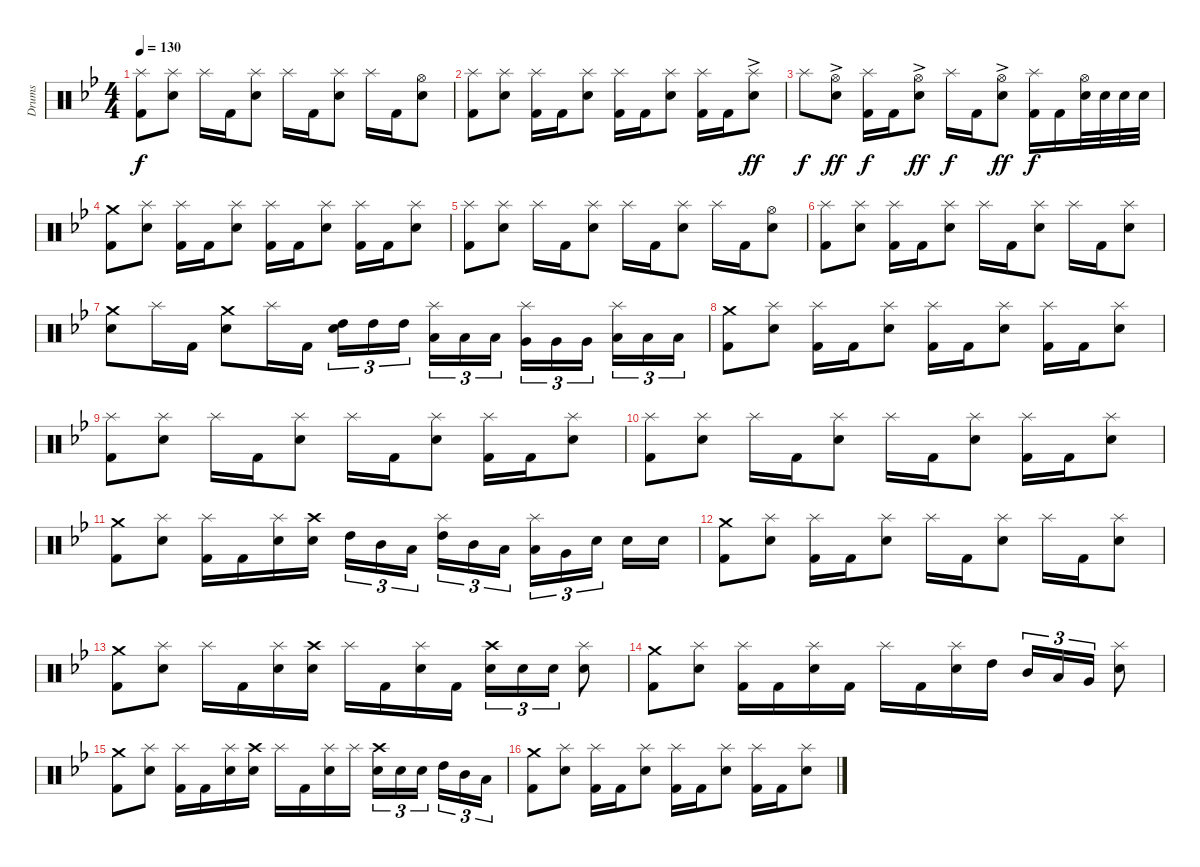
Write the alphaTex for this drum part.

\track ("Drums" "Drums") {instrument percussion}
\staff {score}
\articulation defaults
\ts (4 4)
\tempo 130
\clef neutral
\ks bb
("Splash (hit)" "Kick (hit) 2").8{dy f} ("Electric Snare (hit)" "Splash (hit)").8 "Splash (hit)".16 "Kick (hit) 2".16 ("Electric Snare (hit)" "Splash (hit)").8 "Splash (hit)".16 "Kick (hit) 2".16 ("Electric Snare (hit)" "Splash (hit)").8 "Splash (hit)".16 "Kick (hit) 2".16 ("Electric Snare (hit)" "Hi-Hat (open)").8 |
("Splash (hit)" "Kick (hit) 2").8 ("Electric Snare (hit)" "Splash (hit)").8 ("Splash (hit)" "Kick (hit) 2").16 "Kick (hit) 2".16 ("Electric Snare (hit)" "Splash (hit)").8 ("Splash (hit)" "Kick (hit) 2").16 "Kick (hit) 2".16 ("Electric Snare (hit)" "Splash (hit)").8 ("Splash (hit)" "Kick (hit) 2").16 "Kick (hit) 2".16 ("Electric Snare (hit)"{ac} "Splash (hit)").8{dy ff} |
"Splash (hit)".8{dy f} ("Electric Snare (hit)"{ac} "Hi-Hat (open)").8{dy ff} ("Splash (hit)" "Kick (hit) 2").16{dy f} "Kick (hit) 2".16 ("Electric Snare (hit)"{ac} "Hi-Hat (open)").8{dy ff} "Splash (hit)".16{dy f} "Kick (hit) 2".16 ("Electric Snare (hit)"{ac} "Hi-Hat (open)").8{dy ff} ("Splash (hit)" "Kick (hit) 2").16{dy f} "Kick (hit) 2".16 ("Electric Snare (hit)" "Hi-Hat (open)").32 "Electric Snare (hit)".32 "Electric Snare (hit)".32 "Electric Snare (hit)".32 |
("Crash medium (hit)" "Kick (hit) 2").8 ("Electric Snare (hit)" "Splash (hit)").8 ("Splash (hit)" "Kick (hit) 2").16 "Kick (hit) 2".16 ("Electric Snare (hit)" "Splash (hit)").8 ("Splash (hit)" "Kick (hit) 2").16 "Kick (hit) 2".16 ("Electric Snare (hit)" "Splash (hit)").8 ("Splash (hit)" "Kick (hit) 2").16 "Kick (hit) 2".16 ("Electric Snare (hit)" "Splash (hit)").8 |
("Splash (hit)" "Kick (hit) 2").8 ("Electric Snare (hit)" "Splash (hit)").8 "Splash (hit)".16 "Kick (hit) 2".16 ("Electric Snare (hit)" "Splash (hit)").8 "Splash (hit)".16 "Kick (hit) 2".16 ("Electric Snare (hit)" "Splash (hit)").8 "Splash (hit)".16 "Kick (hit) 2".16 ("Electric Snare (hit)" "Hi-Hat (open)").8 |
("Splash (hit)" "Kick (hit) 2").8 ("Electric Snare (hit)" "Splash (hit)").8 ("Splash (hit)" "Kick (hit) 2").16 "Kick (hit) 2".16 ("Electric Snare (hit)" "Splash (hit)").8 "Splash (hit)".16 "Kick (hit) 2".16 ("Electric Snare (hit)" "Splash (hit)").8 "Splash (hit)".16 "Kick (hit) 2".16 ("Electric Snare (hit)" "Splash (hit)").8 |
("Crash medium (hit)" "Electric Snare (hit)").8 "Splash (hit)".16 "Kick (hit) 2".16 ("Crash medium (hit)" "Electric Snare (hit)").8 "Splash (hit)".16 "Kick (hit) 2".16 ("High Tom (hit)" "Electric Snare (hit)").16{tu (3 2)} "High Tom (hit)".16{tu (3 2)} "High Tom (hit)".16{tu (3 2) beam splitsecondary} ("Low Tom (hit)" "Splash (hit)").16{tu (3 2)} "Low Tom (hit)".16{tu (3 2)} "Low Tom (hit)".16{tu (3 2)} ("Very Low Tom (hit)" "Splash (hit)").16{tu (3 2)} "Very Low Tom (hit)".16{tu (3 2)} "Very Low Tom (hit)".16{tu (3 2) beam splitsecondary} ("Low Floor Tom (hit)" "Splash (hit)").16{tu (3 2)} "Low Floor Tom (hit)".16{tu (3 2)} "Low Floor Tom (hit)".16{tu (3 2)} |
("Crash medium (hit)" "Kick (hit) 2").8 ("Electric Snare (hit)" "Splash (hit)").8 ("Splash (hit)" "Kick (hit) 2").16 "Kick (hit) 2".16 ("Electric Snare (hit)" "Splash (hit)").8 ("Splash (hit)" "Kick (hit) 2").16 "Kick (hit) 2".16 ("Electric Snare (hit)" "Splash (hit)").8 ("Splash (hit)" "Kick (hit) 2").16 "Kick (hit) 2".16 ("Electric Snare (hit)" "Splash (hit)").8 |
("Splash (hit)" "Kick (hit) 2").8 ("Electric Snare (hit)" "Splash (hit)").8 "Splash (hit)".16 "Kick (hit) 2".16 ("Electric Snare (hit)" "Splash (hit)").8 "Splash (hit)".16 "Kick (hit) 2".16 ("Electric Snare (hit)" "Splash (hit)").8 ("Splash (hit)" "Kick (hit) 2").16 "Kick (hit) 2".16 ("Electric Snare (hit)" "Splash (hit)").8 |
("Splash (hit)" "Kick (hit) 2").8 ("Electric Snare (hit)" "Splash (hit)").8 "Splash (hit)".16 "Kick (hit) 2".16 ("Electric Snare (hit)" "Splash (hit)").8 "Splash (hit)".16 "Kick (hit) 2".16 ("Electric Snare (hit)" "Splash (hit)").8 ("Splash (hit)" "Kick (hit) 2").16 "Kick (hit) 2".16 ("Electric Snare (hit)" "Splash (hit)").8 |
("Crash medium (hit)" "Kick (hit) 2").8 ("Electric Snare (hit)" "Splash (hit)").8 ("Splash (hit)" "Kick (hit) 2").16 "Kick (hit) 2".16 ("Electric Snare (hit)" "Splash (hit)").16 ("Electric Snare (hit)" "Crash high (hit)").16 "High Tom (hit)".16{tu (3 2)} "Mid Tom (hit)".16{tu (3 2)} "Low Tom (hit)".16{tu (3 2) beam splitsecondary} ("High Tom (hit)" "Splash (hit)").16{tu (3 2)} "Mid Tom (hit)".16{tu (3 2)} "Low Tom (hit)".16{tu (3 2)} ("Low Tom (hit)" "Splash (hit)").16{tu (3 2)} "Very Low Tom (hit)".16{tu (3 2)} "Electric Snare (hit)".16{tu (3 2) beam splitsecondary} "Electric Snare (hit)".16 "Electric Snare (hit)".16 |
("Crash medium (hit)" "Kick (hit) 2").8 ("Electric Snare (hit)" "Splash (hit)").8 ("Splash (hit)" "Kick (hit) 2").16 "Kick (hit) 2".16 ("Electric Snare (hit)" "Splash (hit)").8 "Splash (hit)".16 "Kick (hit) 2".16 ("Electric Snare (hit)" "Splash (hit)").8 "Splash (hit)".16 "Kick (hit) 2".16 ("Electric Snare (hit)" "Splash (hit)").8 |
("Crash medium (hit)" "Kick (hit) 2").8 ("Electric Snare (hit)" "Splash (hit)").8 "Splash (hit)".16 "Kick (hit) 2".16 ("Electric Snare (hit)" "Splash (hit)").16 ("Electric Snare (hit)" "Crash high (hit)").16 "Splash (hit)".16 "Kick (hit) 2".16 ("Electric Snare (hit)" "Splash (hit)").16 "Kick (hit) 2".16 ("Electric Snare (hit)" "Crash high (hit)").16{tu (3 2)} "Electric Snare (hit)".16{tu (3 2)} "Electric Snare (hit)".16{tu (3 2)} ("Electric Snare (hit)" "Splash (hit)").8 |
("Crash medium (hit)" "Kick (hit) 2").8 ("Electric Snare (hit)" "Splash (hit)").8 ("Splash (hit)" "Kick (hit) 2").16 "Kick (hit) 2".16 ("Electric Snare (hit)" "Splash (hit)").16 "Kick (hit) 2".16 "Splash (hit)".16 "Kick (hit) 2".16 ("Electric Snare (hit)" "Splash (hit)").16 "High Tom (hit)".16 "Mid Tom (hit)".16{tu (3 2)} "Low Tom (hit)".16{tu (3 2)} "Very Low Tom (hit)".16{tu (3 2)} ("Electric Snare (hit)" "Splash (hit)").8 |
("Crash medium (hit)" "Kick (hit) 2").8 ("Electric Snare (hit)" "Splash (hit)").8 ("Splash (hit)" "Kick (hit) 2").16 "Kick (hit) 2".16 ("Electric Snare (hit)" "Splash (hit)").16 ("Electric Snare (hit)" "Crash high (hit)").16 "Splash (hit)".16 "Kick (hit) 2".16 ("Electric Snare (hit)" "Splash (hit)").16 "Splash (hit)".16 ("Electric Snare (hit)" "Crash high (hit)").16{tu (3 2)} "Electric Snare (hit)".16{tu (3 2)} "Electric Snare (hit)".16{tu (3 2) beam splitsecondary} "High Tom (hit)".16{tu (3 2)} "Mid Tom (hit)".16{tu (3 2)} "Low Tom (hit)".16{tu (3 2)} |
("Crash medium (hit)" "Kick (hit) 2").8 ("Electric Snare (hit)" "Splash (hit)").8 ("Splash (hit)" "Kick (hit) 2").16 "Kick (hit) 2".16 ("Electric Snare (hit)" "Splash (hit)").8 ("Splash (hit)" "Kick (hit) 2").16 "Kick (hit) 2".16 ("Electric Snare (hit)" "Splash (hit)").8 ("Splash (hit)" "Kick (hit) 2").16 "Kick (hit) 2".16 ("Electric Snare (hit)" "Splash (hit)").8
